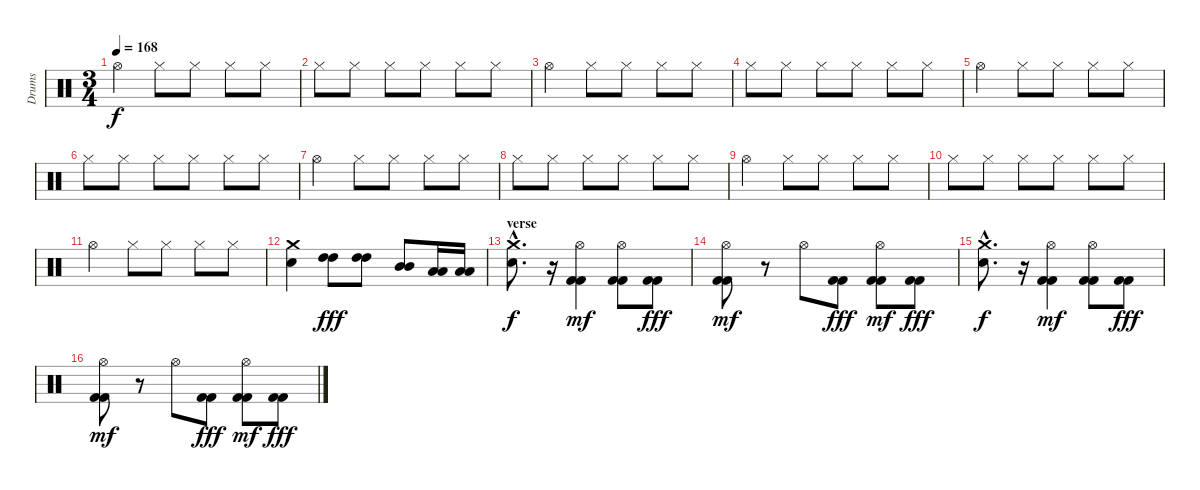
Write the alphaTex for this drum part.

\track ("Drums" "Drums") {instrument percussion}
\staff {score}
\articulation defaults
\ts (3 4)
\tempo 168
\clef neutral
\ks c "Hi-Hat (open)".4{dy f} "Hi-Hat (closed)".8 "Hi-Hat (closed)".8 "Hi-Hat (closed)".8 "Hi-Hat (closed)".8
|
"Hi-Hat (closed)".8 "Hi-Hat (closed)".8 "Hi-Hat (closed)".8 "Hi-Hat (closed)".8 "Hi-Hat (closed)".8 "Hi-Hat (closed)".8 |
"Hi-Hat (open)".4 "Hi-Hat (closed)".8 "Hi-Hat (closed)".8 "Hi-Hat (closed)".8 "Hi-Hat (closed)".8 |
"Hi-Hat (closed)".8 "Hi-Hat (closed)".8 "Hi-Hat (closed)".8 "Hi-Hat (closed)".8 "Hi-Hat (closed)".8 "Hi-Hat (closed)".8 |
"Hi-Hat (open)".4 "Hi-Hat (closed)".8 "Hi-Hat (closed)".8 "Hi-Hat (closed)".8 "Hi-Hat (closed)".8 |
"Hi-Hat (closed)".8 "Hi-Hat (closed)".8 "Hi-Hat (closed)".8 "Hi-Hat (closed)".8 "Hi-Hat (closed)".8 "Hi-Hat (closed)".8 |
"Hi-Hat (open)".4 "Hi-Hat (closed)".8 "Hi-Hat (closed)".8 "Hi-Hat (closed)".8 "Hi-Hat (closed)".8 |
"Hi-Hat (closed)".8 "Hi-Hat (closed)".8 "Hi-Hat (closed)".8 "Hi-Hat (closed)".8 "Hi-Hat (closed)".8 "Hi-Hat (closed)".8 |
"Hi-Hat (open)".4 "Hi-Hat (closed)".8 "Hi-Hat (closed)".8 "Hi-Hat (closed)".8 "Hi-Hat (closed)".8 |
"Hi-Hat (closed)".8 "Hi-Hat (closed)".8 "Hi-Hat (closed)".8 "Hi-Hat (closed)".8 "Hi-Hat (closed)".8 "Hi-Hat (closed)".8 |
"Hi-Hat (open)".4 "Hi-Hat (closed)".8 "Hi-Hat (closed)".8 "Hi-Hat (closed)".8 "Hi-Hat (closed)".8 |
("Crash medium (hit)" "Electric Snare (hit)").4 ("High Tom (hit)" "High Tom (hit)").8{dy fff} ("High Tom (hit)" "High Tom (hit)").8 ("Mid Tom (hit)" "Mid Tom (hit)").8 ("Low Tom (hit)" "Low Tom (hit)").16 ("Low Tom (hit)" "Low Tom (hit)").16 |
\section ("" "verse")
("Crash medium (hit)"{hac} "Electric Snare (hit)"{hac}).8{d dy f} r.16 ("Kick (hit) 2" "Kick (hit) 2" "Hi-Hat (open)").4{dy mf} ("Kick (hit) 2" "Kick (hit) 2" "Hi-Hat (open)").8 ("Kick (hit) 2" "Kick (hit) 2").8{dy fff} |
("Kick (hit) 2" "Kick (hit) 2" "Hi-Hat (open)").8{dy mf} r.8 "Hi-Hat (open)".8 ("Kick (hit) 2" "Kick (hit) 2").8{dy fff} ("Kick (hit) 2" "Kick (hit) 2" "Hi-Hat (open)").8{dy mf} ("Kick (hit) 2" "Kick (hit) 2").8{dy fff} |
("Crash medium (hit)"{hac} "Electric Snare (hit)"{hac}).8{d dy f} r.16 ("Kick (hit) 2" "Kick (hit) 2" "Hi-Hat (open)").4{dy mf} ("Kick (hit) 2" "Kick (hit) 2" "Hi-Hat (open)").8 ("Kick (hit) 2" "Kick (hit) 2").8{dy fff} |
("Kick (hit) 2" "Kick (hit) 2" "Hi-Hat (open)").8{dy mf} r.8 "Hi-Hat (open)".8 ("Kick (hit) 2" "Kick (hit) 2").8{dy fff} ("Kick (hit) 2" "Kick (hit) 2" "Hi-Hat (open)").8{dy mf} ("Kick (hit) 2" "Kick (hit) 2").8{dy fff}
